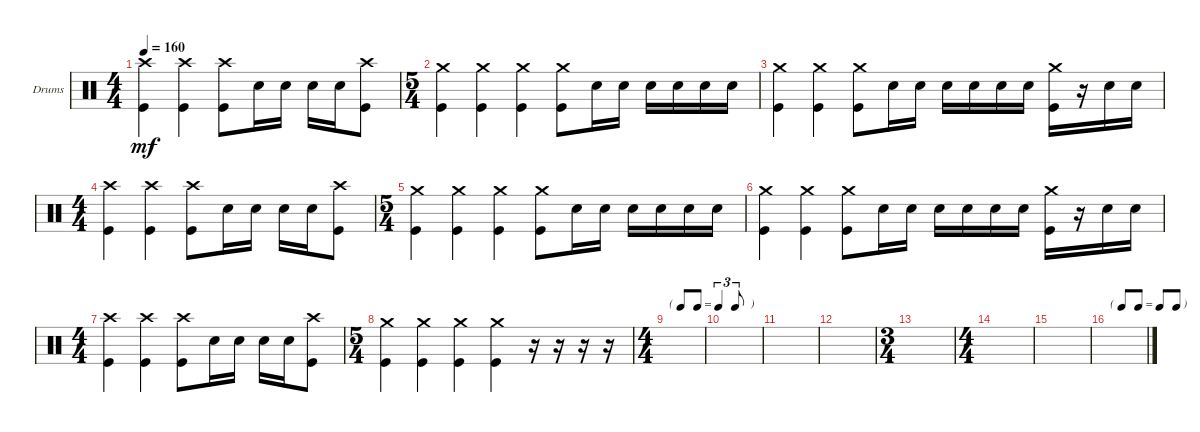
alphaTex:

\defaultSystemsLayout 4
\bracketExtendMode groupsimilarinstruments
\firstSystemTrackNameOrientation horizontal
\otherSystemsTrackNameOrientation horizontal
\track ("Drumkit" "Drums") {instrument percussion}
\staff {score}
\articulation defaults
\ts (4 4)
\tempo 160
\clef neutral
\ks c
("Kick (hit)" "Crash high (hit)").4{dy mf} ("Kick (hit)" "Crash high (hit)").4 ("Kick (hit)" "Crash high (hit)").8 "Snare (hit) 2".16 "Snare (hit) 2".16 "Snare (hit) 2".16 "Snare (hit) 2".16 ("Kick (hit)" "Crash high (hit)").8 |
\ts (5 4)
("Kick (hit)" "Crash medium (hit)").4 ("Kick (hit)" "Crash medium (hit)").4 ("Kick (hit)" "Crash medium (hit)").4 ("Kick (hit)" "Crash medium (hit)").8 "Snare (hit) 2".16 "Snare (hit) 2".16 "Snare (hit) 2".16 "Snare (hit) 2".16 "Snare (hit) 2".16 "Snare (hit) 2".16 |
("Kick (hit)" "Crash medium (hit)").4 ("Kick (hit)" "Crash medium (hit)").4 ("Kick (hit)" "Crash medium (hit)").8 "Snare (hit) 2".16 "Snare (hit) 2".16 "Snare (hit) 2".16 "Snare (hit) 2".16 "Snare (hit) 2".16 "Snare (hit) 2".16 ("Crash medium (hit)" "Kick (hit)").16 r.16 "Snare (hit) 2".16 "Snare (hit) 2".16 |
\ts (4 4)
("Kick (hit)" "Crash high (hit)").4 ("Kick (hit)" "Crash high (hit)").4 ("Kick (hit)" "Crash high (hit)").8 "Snare (hit) 2".16 "Snare (hit) 2".16 "Snare (hit) 2".16 "Snare (hit) 2".16 ("Kick (hit)" "Crash high (hit)").8 |
\ts (5 4)
("Kick (hit)" "Crash medium (hit)").4 ("Kick (hit)" "Crash medium (hit)").4 ("Kick (hit)" "Crash medium (hit)").4 ("Kick (hit)" "Crash medium (hit)").8 "Snare (hit) 2".16 "Snare (hit) 2".16 "Snare (hit) 2".16 "Snare (hit) 2".16 "Snare (hit) 2".16 "Snare (hit) 2".16 |
("Kick (hit)" "Crash medium (hit)").4 ("Kick (hit)" "Crash medium (hit)").4 ("Kick (hit)" "Crash medium (hit)").8 "Snare (hit) 2".16 "Snare (hit) 2".16 "Snare (hit) 2".16 "Snare (hit) 2".16 "Snare (hit) 2".16 "Snare (hit) 2".16 ("Crash medium (hit)" "Kick (hit)").16 r.16 "Snare (hit) 2".16 "Snare (hit) 2".16 |
\ts (4 4)
("Kick (hit)" "Crash high (hit)").4 ("Kick (hit)" "Crash high (hit)").4 ("Kick (hit)" "Crash high (hit)").8 "Snare (hit) 2".16 "Snare (hit) 2".16 "Snare (hit) 2".16 "Snare (hit) 2".16 ("Kick (hit)" "Crash high (hit)").8 |
\ts (5 4)
("Kick (hit)" "Crash medium (hit)").4 ("Kick (hit)" "Crash medium (hit)").4 ("Kick (hit)" "Crash medium (hit)").4 ("Kick (hit)" "Crash medium (hit)").4 r.16 r.16 r.16 r.16 |
\ts (4 4)
\tf triplet8th
|
|
|
|
\ts (3 4)
|
\ts (4 4)
|
|
\tf none
